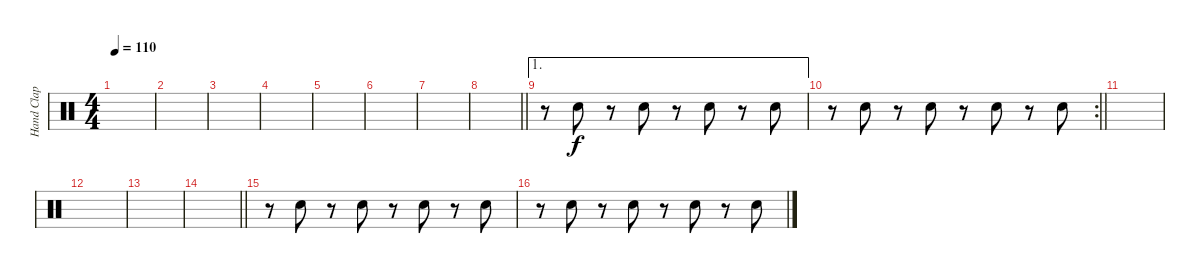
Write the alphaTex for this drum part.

\track ("Hand Clap" "Hand Clap") {instrument percussion}
\staff {score}
\articulation defaults
\ts (4 4)
\tempo 110
\clef neutral
\ks c
|
|
|
|
|
|
|
\barLineRight lightlight
|
\ae 1
r.8 "Hand Clap (hit)".8 r.8 "Hand Clap (hit)".8 r.8 "Hand Clap (hit)".8 r.8 "Hand Clap (hit)".8 |
\rc 2
\barLineRight lightlight
r.8 "Hand Clap (hit)".8 r.8 "Hand Clap (hit)".8 r.8 "Hand Clap (hit)".8 r.8 "Hand Clap (hit)".8 |
|
|
|
\barLineRight lightlight
|
r.8 "Hand Clap (hit)".8 r.8 "Hand Clap (hit)".8 r.8 "Hand Clap (hit)".8 r.8 "Hand Clap (hit)".8 |
r.8 "Hand Clap (hit)".8 r.8 "Hand Clap (hit)".8 r.8 "Hand Clap (hit)".8 r.8 "Hand Clap (hit)".8
